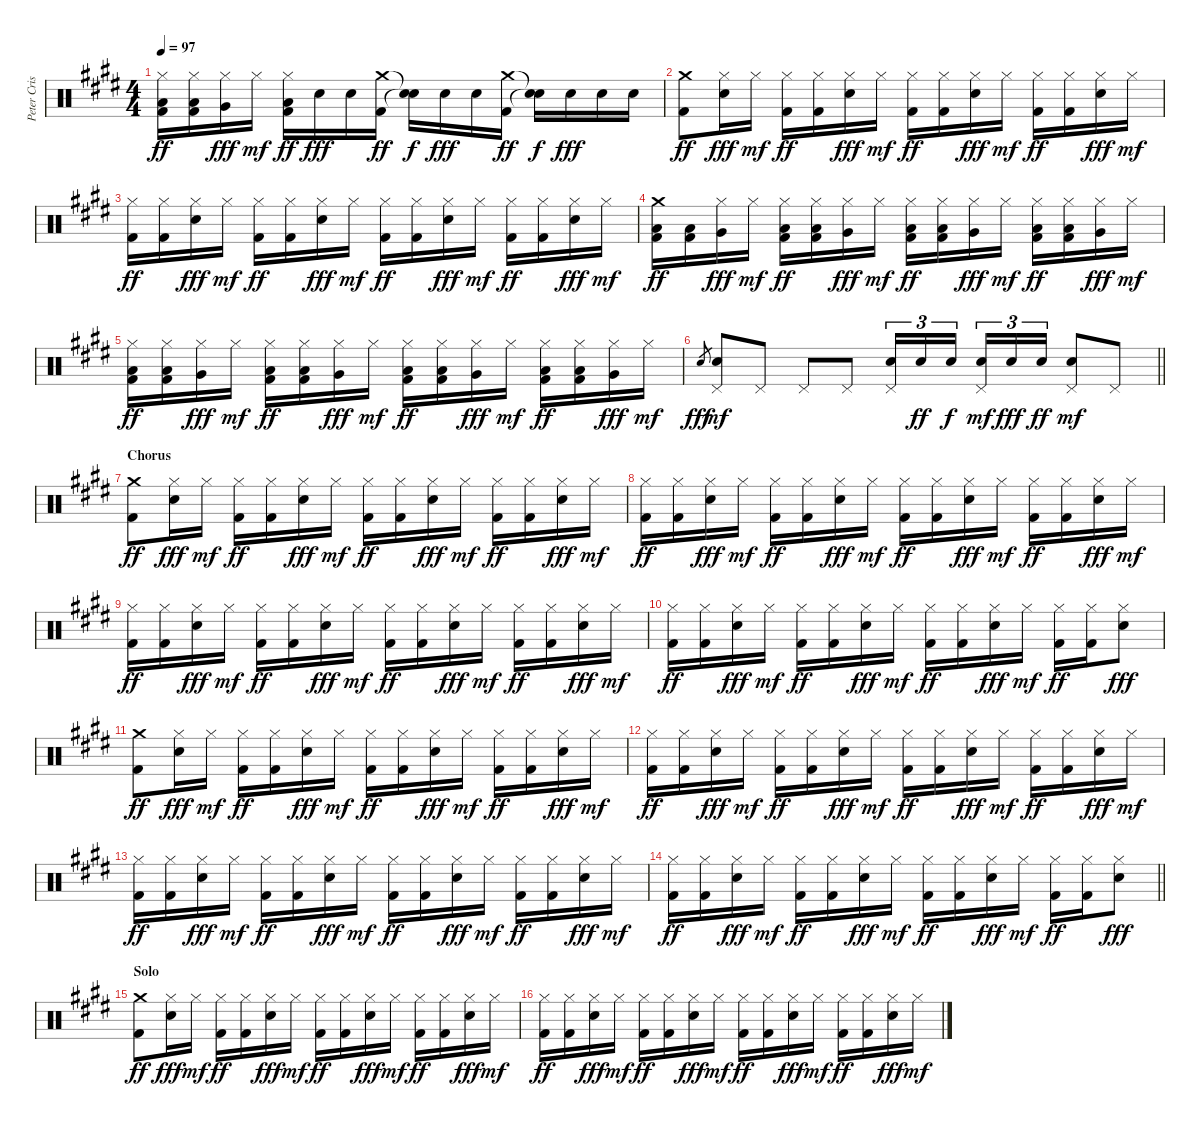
\track ("Peter Criss" "Peter Cris") {instrument percussion}
\staff {score}
\articulation defaults
\ts (4 4)
\tempo 97
\clef neutral
\ks c#minor
("Hi-Hat (closed)" "Low Floor Tom (hit)" "Kick (hit) 2").16{dy ff} ("Hi-Hat (closed)" "Low Floor Tom (hit)" "Kick (hit) 2").16 ("Hi-Hat (closed)" "Very Low Tom (hit)").16{dy fff} "Hi-Hat (closed)".16{dy mf} ("Hi-Hat (closed)" "Low Floor Tom (hit)" "Kick (hit) 2").16{dy ff} "Snare (hit) 2".16{dy fff} "Snare (hit) 2".16 ("Crash medium (hit)" "Kick (hit) 2").16{dy ff} ("Snare (hit)"{t} "Snare (hit)"{t}).16{dy f} "Snare (hit) 2".16{dy fff} "Snare (hit) 2".16 ("Crash medium (hit)" "Kick (hit) 2").16{dy ff} ("Snare (hit)"{t} "Snare (hit)"{t}).16{dy f} "Snare (hit) 2".16{dy fff} "Snare (hit) 2".16 "Snare (hit) 2".16 |
("Crash medium (hit)" "Kick (hit) 2").8{dy ff} ("Hi-Hat (closed)" "Snare (hit) 2").16{dy fff} "Hi-Hat (closed)".16{dy mf} ("Hi-Hat (closed)" "Kick (hit) 2").16{dy ff} ("Hi-Hat (closed)" "Kick (hit) 2").16 ("Hi-Hat (closed)" "Snare (hit) 2").16{dy fff} "Hi-Hat (closed)".16{dy mf} ("Hi-Hat (closed)" "Kick (hit) 2").16{dy ff} ("Hi-Hat (closed)" "Kick (hit) 2").16 ("Hi-Hat (closed)" "Snare (hit) 2").16{dy fff} "Hi-Hat (closed)".16{dy mf} ("Hi-Hat (closed)" "Kick (hit) 2").16{dy ff} ("Hi-Hat (closed)" "Kick (hit) 2").16 ("Hi-Hat (closed)" "Snare (hit) 2").16{dy fff} "Hi-Hat (closed)".16{dy mf} |
("Hi-Hat (closed)" "Kick (hit) 2").16{dy ff} ("Hi-Hat (closed)" "Kick (hit) 2").16 ("Hi-Hat (closed)" "Snare (hit) 2").16{dy fff} "Hi-Hat (closed)".16{dy mf} ("Hi-Hat (closed)" "Kick (hit) 2").16{dy ff} ("Hi-Hat (closed)" "Kick (hit) 2").16 ("Hi-Hat (closed)" "Snare (hit) 2").16{dy fff} "Hi-Hat (closed)".16{dy mf} ("Hi-Hat (closed)" "Kick (hit) 2").16{dy ff} ("Hi-Hat (closed)" "Kick (hit) 2").16 ("Hi-Hat (closed)" "Snare (hit) 2").16{dy fff} "Hi-Hat (closed)".16{dy mf} ("Hi-Hat (closed)" "Kick (hit) 2").16{dy ff} ("Hi-Hat (closed)" "Kick (hit) 2").16 ("Hi-Hat (closed)" "Snare (hit) 2").16{dy fff} "Hi-Hat (closed)".16{dy mf} |
("Crash medium (hit)" "Low Floor Tom (hit)" "Kick (hit) 2").16{dy ff} ("Low Floor Tom (hit)" "Kick (hit) 2").16 ("Hi-Hat (closed)" "Very Low Tom (hit)").16{dy fff} "Hi-Hat (closed)".16{dy mf} ("Hi-Hat (closed)" "Low Floor Tom (hit)" "Kick (hit) 2").16{dy ff} ("Hi-Hat (closed)" "Low Floor Tom (hit)" "Kick (hit) 2").16 ("Hi-Hat (closed)" "Very Low Tom (hit)").16{dy fff} "Hi-Hat (closed)".16{dy mf} ("Hi-Hat (closed)" "Low Floor Tom (hit)" "Kick (hit) 2").16{dy ff} ("Hi-Hat (closed)" "Low Floor Tom (hit)" "Kick (hit) 2").16 ("Hi-Hat (closed)" "Very Low Tom (hit)").16{dy fff} "Hi-Hat (closed)".16{dy mf} ("Hi-Hat (closed)" "Low Floor Tom (hit)" "Kick (hit) 2").16{dy ff} ("Hi-Hat (closed)" "Low Floor Tom (hit)" "Kick (hit) 2").16 ("Hi-Hat (closed)" "Very Low Tom (hit)").16{dy fff} "Hi-Hat (closed)".16{dy mf} |
("Hi-Hat (closed)" "Low Floor Tom (hit)" "Kick (hit) 2").16{dy ff} ("Hi-Hat (closed)" "Low Floor Tom (hit)" "Kick (hit) 2").16 ("Hi-Hat (closed)" "Very Low Tom (hit)").16{dy fff} "Hi-Hat (closed)".16{dy mf} ("Hi-Hat (closed)" "Low Floor Tom (hit)" "Kick (hit) 2").16{dy ff} ("Hi-Hat (closed)" "Low Floor Tom (hit)" "Kick (hit) 2").16 ("Hi-Hat (closed)" "Very Low Tom (hit)").16{dy fff} "Hi-Hat (closed)".16{dy mf} ("Hi-Hat (closed)" "Low Floor Tom (hit)" "Kick (hit) 2").16{dy ff} ("Hi-Hat (closed)" "Low Floor Tom (hit)" "Kick (hit) 2").16 ("Hi-Hat (closed)" "Very Low Tom (hit)").16{dy fff} "Hi-Hat (closed)".16{dy mf} ("Hi-Hat (closed)" "Low Floor Tom (hit)" "Kick (hit) 2").16{dy ff} ("Hi-Hat (closed)" "Low Floor Tom (hit)" "Kick (hit) 2").16 ("Hi-Hat (closed)" "Very Low Tom (hit)").16{dy fff} "Hi-Hat (closed)".16{dy mf} |
\barLineRight lightlight "Snare (hit) 2".8{gr dy fff}
("Snare (hit) 2" "Pedal Hi-Hat (hit)").8{dy mf} "Pedal Hi-Hat (hit)".8 "Pedal Hi-Hat (hit)".8 "Pedal Hi-Hat (hit)".8 ("Snare (hit) 2" "Pedal Hi-Hat (hit)").16{tu (3 2)} "Snare (hit) 2".16{tu (3 2) dy ff} "Snare (hit) 2".16{tu (3 2) dy f beam splitsecondary} ("Snare (hit) 2" "Pedal Hi-Hat (hit)").16{tu (3 2) dy mf} "Snare (hit) 2".16{tu (3 2) dy fff} "Snare (hit) 2".16{tu (3 2) dy ff} ("Snare (hit) 2" "Pedal Hi-Hat (hit)").8{dy mf} "Pedal Hi-Hat (hit)".8 |
\section ("" "Chorus")
("Crash medium (hit)" "Kick (hit) 2").8{dy ff} ("Hi-Hat (closed)" "Snare (hit) 2").16{dy fff} "Hi-Hat (closed)".16{dy mf} ("Hi-Hat (closed)" "Kick (hit) 2").16{dy ff} ("Hi-Hat (closed)" "Kick (hit) 2").16 ("Hi-Hat (closed)" "Snare (hit) 2").16{dy fff} "Hi-Hat (closed)".16{dy mf} ("Hi-Hat (closed)" "Kick (hit) 2").16{dy ff} ("Hi-Hat (closed)" "Kick (hit) 2").16 ("Hi-Hat (closed)" "Snare (hit) 2").16{dy fff} "Hi-Hat (closed)".16{dy mf} ("Hi-Hat (closed)" "Kick (hit) 2").16{dy ff} ("Hi-Hat (closed)" "Kick (hit) 2").16 ("Hi-Hat (closed)" "Snare (hit) 2").16{dy fff} "Hi-Hat (closed)".16{dy mf} |
("Hi-Hat (closed)" "Kick (hit) 2").16{dy ff} ("Hi-Hat (closed)" "Kick (hit) 2").16 ("Hi-Hat (closed)" "Snare (hit) 2").16{dy fff} "Hi-Hat (closed)".16{dy mf} ("Hi-Hat (closed)" "Kick (hit) 2").16{dy ff} ("Hi-Hat (closed)" "Kick (hit) 2").16 ("Hi-Hat (closed)" "Snare (hit) 2").16{dy fff} "Hi-Hat (closed)".16{dy mf} ("Hi-Hat (closed)" "Kick (hit) 2").16{dy ff} ("Hi-Hat (closed)" "Kick (hit) 2").16 ("Hi-Hat (closed)" "Snare (hit) 2").16{dy fff} "Hi-Hat (closed)".16{dy mf} ("Hi-Hat (closed)" "Kick (hit) 2").16{dy ff} ("Hi-Hat (closed)" "Kick (hit) 2").16 ("Hi-Hat (closed)" "Snare (hit) 2").16{dy fff} "Hi-Hat (closed)".16{dy mf} |
("Hi-Hat (closed)" "Kick (hit) 2").16{dy ff} ("Hi-Hat (closed)" "Kick (hit) 2").16 ("Hi-Hat (closed)" "Snare (hit) 2").16{dy fff} "Hi-Hat (closed)".16{dy mf} ("Hi-Hat (closed)" "Kick (hit) 2").16{dy ff} ("Hi-Hat (closed)" "Kick (hit) 2").16 ("Hi-Hat (closed)" "Snare (hit) 2").16{dy fff} "Hi-Hat (closed)".16{dy mf} ("Hi-Hat (closed)" "Kick (hit) 2").16{dy ff} ("Hi-Hat (closed)" "Kick (hit) 2").16 ("Hi-Hat (closed)" "Snare (hit) 2").16{dy fff} "Hi-Hat (closed)".16{dy mf} ("Hi-Hat (closed)" "Kick (hit) 2").16{dy ff} ("Hi-Hat (closed)" "Kick (hit) 2").16 ("Hi-Hat (closed)" "Snare (hit) 2").16{dy fff} "Hi-Hat (closed)".16{dy mf} |
("Hi-Hat (closed)" "Kick (hit) 2").16{dy ff} ("Hi-Hat (closed)" "Kick (hit) 2").16 ("Hi-Hat (closed)" "Snare (hit) 2").16{dy fff} "Hi-Hat (closed)".16{dy mf} ("Hi-Hat (closed)" "Kick (hit) 2").16{dy ff} ("Hi-Hat (closed)" "Kick (hit) 2").16 ("Hi-Hat (closed)" "Snare (hit) 2").16{dy fff} "Hi-Hat (closed)".16{dy mf} ("Hi-Hat (closed)" "Kick (hit) 2").16{dy ff} ("Hi-Hat (closed)" "Kick (hit) 2").16 ("Hi-Hat (closed)" "Snare (hit) 2").16{dy fff} "Hi-Hat (closed)".16{dy mf} ("Hi-Hat (closed)" "Kick (hit) 2").16{dy ff} ("Hi-Hat (closed)" "Kick (hit) 2").16 ("Hi-Hat (closed)" "Snare (hit) 2").8{dy fff} |
("Crash medium (hit)" "Kick (hit) 2").8{dy ff} ("Hi-Hat (closed)" "Snare (hit) 2").16{dy fff} "Hi-Hat (closed)".16{dy mf} ("Hi-Hat (closed)" "Kick (hit) 2").16{dy ff} ("Hi-Hat (closed)" "Kick (hit) 2").16 ("Hi-Hat (closed)" "Snare (hit) 2").16{dy fff} "Hi-Hat (closed)".16{dy mf} ("Hi-Hat (closed)" "Kick (hit) 2").16{dy ff} ("Hi-Hat (closed)" "Kick (hit) 2").16 ("Hi-Hat (closed)" "Snare (hit) 2").16{dy fff} "Hi-Hat (closed)".16{dy mf} ("Hi-Hat (closed)" "Kick (hit) 2").16{dy ff} ("Hi-Hat (closed)" "Kick (hit) 2").16 ("Hi-Hat (closed)" "Snare (hit) 2").16{dy fff} "Hi-Hat (closed)".16{dy mf} |
("Hi-Hat (closed)" "Kick (hit) 2").16{dy ff} ("Hi-Hat (closed)" "Kick (hit) 2").16 ("Hi-Hat (closed)" "Snare (hit) 2").16{dy fff} "Hi-Hat (closed)".16{dy mf} ("Hi-Hat (closed)" "Kick (hit) 2").16{dy ff} ("Hi-Hat (closed)" "Kick (hit) 2").16 ("Hi-Hat (closed)" "Snare (hit) 2").16{dy fff} "Hi-Hat (closed)".16{dy mf} ("Hi-Hat (closed)" "Kick (hit) 2").16{dy ff} ("Hi-Hat (closed)" "Kick (hit) 2").16 ("Hi-Hat (closed)" "Snare (hit) 2").16{dy fff} "Hi-Hat (closed)".16{dy mf} ("Hi-Hat (closed)" "Kick (hit) 2").16{dy ff} ("Hi-Hat (closed)" "Kick (hit) 2").16 ("Hi-Hat (closed)" "Snare (hit) 2").16{dy fff} "Hi-Hat (closed)".16{dy mf} |
("Hi-Hat (closed)" "Kick (hit) 2").16{dy ff} ("Hi-Hat (closed)" "Kick (hit) 2").16 ("Hi-Hat (closed)" "Snare (hit) 2").16{dy fff} "Hi-Hat (closed)".16{dy mf} ("Hi-Hat (closed)" "Kick (hit) 2").16{dy ff} ("Hi-Hat (closed)" "Kick (hit) 2").16 ("Hi-Hat (closed)" "Snare (hit) 2").16{dy fff} "Hi-Hat (closed)".16{dy mf} ("Hi-Hat (closed)" "Kick (hit) 2").16{dy ff} ("Hi-Hat (closed)" "Kick (hit) 2").16 ("Hi-Hat (closed)" "Snare (hit) 2").16{dy fff} "Hi-Hat (closed)".16{dy mf} ("Hi-Hat (closed)" "Kick (hit) 2").16{dy ff} ("Hi-Hat (closed)" "Kick (hit) 2").16 ("Hi-Hat (closed)" "Snare (hit) 2").16{dy fff} "Hi-Hat (closed)".16{dy mf} |
\barLineRight lightlight
("Hi-Hat (closed)" "Kick (hit) 2").16{dy ff} ("Hi-Hat (closed)" "Kick (hit) 2").16 ("Hi-Hat (closed)" "Snare (hit) 2").16{dy fff} "Hi-Hat (closed)".16{dy mf} ("Hi-Hat (closed)" "Kick (hit) 2").16{dy ff} ("Hi-Hat (closed)" "Kick (hit) 2").16 ("Hi-Hat (closed)" "Snare (hit) 2").16{dy fff} "Hi-Hat (closed)".16{dy mf} ("Hi-Hat (closed)" "Kick (hit) 2").16{dy ff} ("Hi-Hat (closed)" "Kick (hit) 2").16 ("Hi-Hat (closed)" "Snare (hit) 2").16{dy fff} "Hi-Hat (closed)".16{dy mf} ("Hi-Hat (closed)" "Kick (hit) 2").16{dy ff} ("Hi-Hat (closed)" "Kick (hit) 2").16 ("Hi-Hat (closed)" "Snare (hit) 2").8{dy fff} |
\section ("" "Solo")
("Crash medium (hit)" "Kick (hit) 2").8{dy ff} ("Hi-Hat (closed)" "Snare (hit) 2").16{dy fff} "Hi-Hat (closed)".16{dy mf} ("Hi-Hat (closed)" "Kick (hit) 2").16{dy ff} ("Hi-Hat (closed)" "Kick (hit) 2").16 ("Hi-Hat (closed)" "Snare (hit) 2").16{dy fff} "Hi-Hat (closed)".16{dy mf} ("Hi-Hat (closed)" "Kick (hit) 2").16{dy ff} ("Hi-Hat (closed)" "Kick (hit) 2").16 ("Hi-Hat (closed)" "Snare (hit) 2").16{dy fff} "Hi-Hat (closed)".16{dy mf} ("Hi-Hat (closed)" "Kick (hit) 2").16{dy ff} ("Hi-Hat (closed)" "Kick (hit) 2").16 ("Hi-Hat (closed)" "Snare (hit) 2").16{dy fff} "Hi-Hat (closed)".16{dy mf} |
("Hi-Hat (closed)" "Kick (hit) 2").16{dy ff} ("Hi-Hat (closed)" "Kick (hit) 2").16 ("Hi-Hat (closed)" "Snare (hit) 2").16{dy fff} "Hi-Hat (closed)".16{dy mf} ("Hi-Hat (closed)" "Kick (hit) 2").16{dy ff} ("Hi-Hat (closed)" "Kick (hit) 2").16 ("Hi-Hat (closed)" "Snare (hit) 2").16{dy fff} "Hi-Hat (closed)".16{dy mf} ("Hi-Hat (closed)" "Kick (hit) 2").16{dy ff} ("Hi-Hat (closed)" "Kick (hit) 2").16 ("Hi-Hat (closed)" "Snare (hit) 2").16{dy fff} "Hi-Hat (closed)".16{dy mf} ("Hi-Hat (closed)" "Kick (hit) 2").16{dy ff} ("Hi-Hat (closed)" "Kick (hit) 2").16 ("Hi-Hat (closed)" "Snare (hit) 2").16{dy fff} "Hi-Hat (closed)".16{dy mf}
